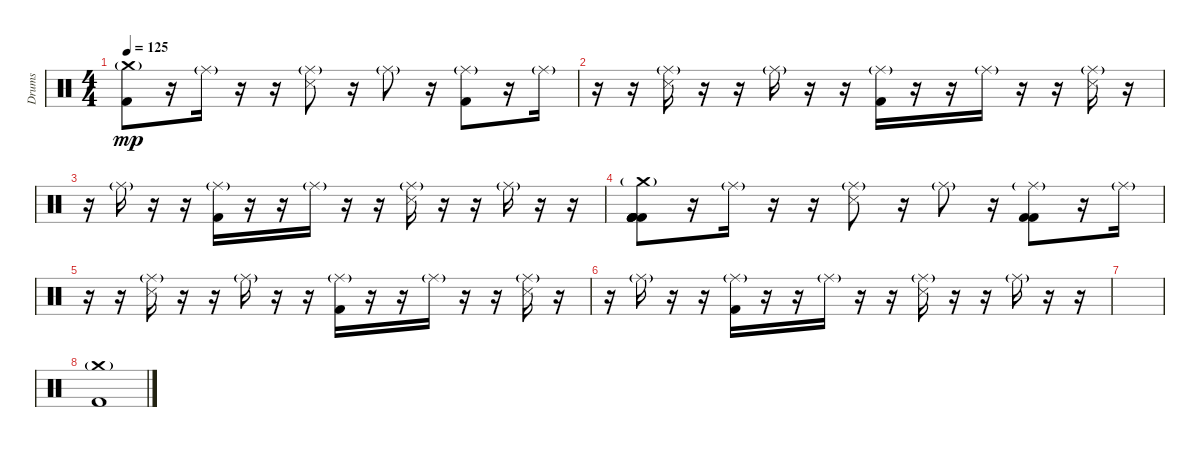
\track ("Drums" "Drums") {instrument percussion}
\staff {score}
\articulation defaults
\ts (4 4)
\tempo 125
\clef neutral
\ks c
("Kick (hit) 2" "Crash medium (hit)"{g}).8{dy mp} r.16 "Ride (middle)"{g}.16 r.16 r.16 ("Snare (side stick) 3" "Ride (middle)"{g}).8 r.16 "Ride (middle)"{g}.8 r.16 ("Kick (hit) 2" "Ride (middle)"{g}).8 r.16 "Ride (middle)"{g}.16 |
r.16 r.16 ("Snare (side stick) 3" "Ride (middle)"{g}).16 r.16 r.16 "Ride (middle)"{g}.16 r.16 r.16 ("Kick (hit) 2" "Ride (middle)"{g}).16 r.16 r.16 "Ride (middle)"{g}.16 r.16 r.16 ("Snare (side stick) 3" "Ride (middle)"{g}).16 r.16 |
r.16 "Ride (middle)"{g}.16 r.16 r.16 ("Kick (hit) 2" "Ride (middle)"{g}).16 r.16 r.16 "Ride (middle)"{g}.16 r.16 r.16 ("Snare (side stick) 3" "Ride (middle)"{g}).16 r.16 r.16 "Ride (middle)"{g}.16 r.16 r.16 |
("Kick (hit) 2" "Kick (hit) 2" "Kick (hit) 2" "Kick (hit) 2" "Kick (hit) 2" "Crash medium (hit)"{g}).8 r.16 "Ride (middle)"{g}.16 r.16 r.16 ("Snare (side stick) 3" "Ride (middle)"{g}).8 r.16 "Ride (middle)"{g}.8 r.16 ("Kick (hit) 2" "Kick (hit) 2" "Ride (middle)"{g}).8 r.16 "Ride (middle)"{g}.16 |
r.16 r.16 ("Snare (side stick) 3" "Ride (middle)"{g}).16 r.16 r.16 "Ride (middle)"{g}.16 r.16 r.16 ("Kick (hit) 2" "Ride (middle)"{g}).16 r.16 r.16 "Ride (middle)"{g}.16 r.16 r.16 ("Snare (side stick) 3" "Ride (middle)"{g}).16 r.16 |
r.16 "Ride (middle)"{g}.16 r.16 r.16 ("Kick (hit) 2" "Ride (middle)"{g}).16 r.16 r.16 "Ride (middle)"{g}.16 r.16 r.16 ("Snare (side stick) 3" "Ride (middle)"{g}).16 r.16 r.16 "Ride (middle)"{g}.16 r.16 r.16 |
|
("Kick (hit) 2" "Crash medium (hit)"{g}).1
